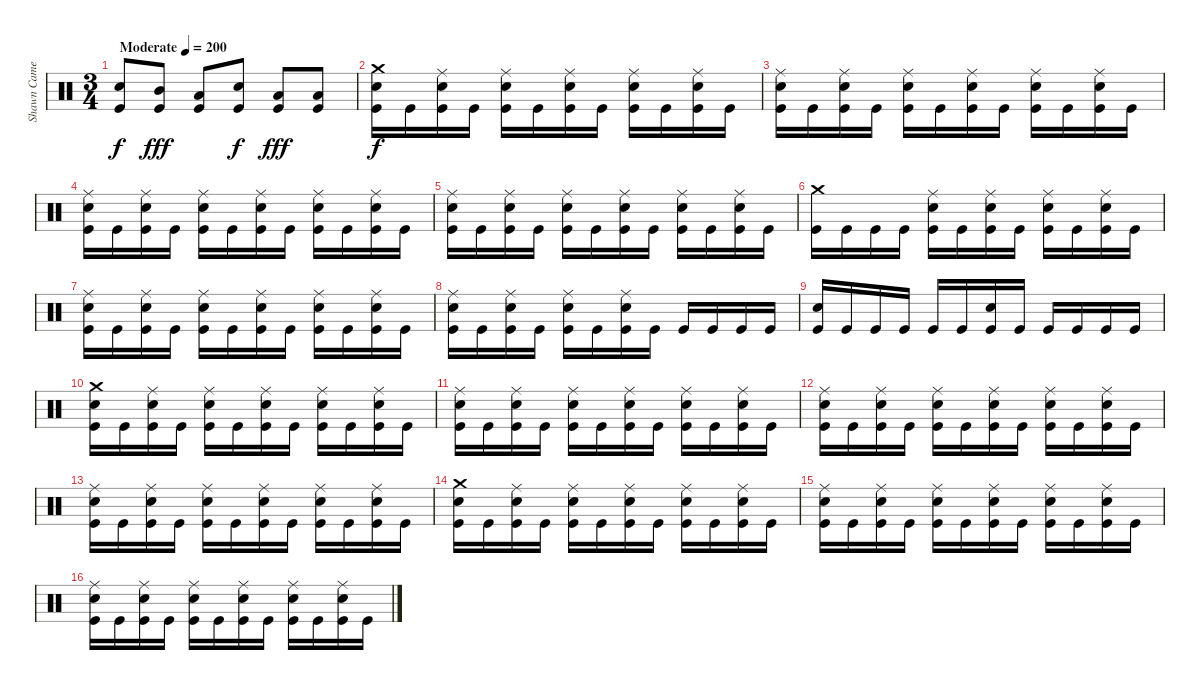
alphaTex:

\track ("Shawn Cameron" "Shawn Came") {instrument percussion}
\staff {score}
\articulation defaults
\ts (3 4)
\tempo (200 "Moderate")
\clef neutral
\ks c
("Snare (hit) 2" "Kick (hit)").8{dy f} ("Mid Tom (hit)" "Kick (hit)").8{dy fff} ("Low Tom (hit)" "Kick (hit)").8 ("Snare (hit) 2" "Kick (hit)").8{dy f} ("Low Tom (hit)" "Kick (hit)").8{dy fff} ("Low Floor Tom (hit)" "Kick (hit)").8 |
("Crash medium (hit)" "Snare (hit) 2" "Kick (hit)").16{dy f} "Kick (hit)".16 ("Ride (middle)" "Snare (hit) 2" "Kick (hit)").16 "Kick (hit)".16 ("Ride (middle)" "Snare (hit) 2" "Kick (hit)").16 "Kick (hit)".16 ("Ride (middle)" "Snare (hit) 2" "Kick (hit)").16 "Kick (hit)".16 ("Ride (middle)" "Snare (hit) 2" "Kick (hit)").16 "Kick (hit)".16 ("Ride (middle)" "Snare (hit) 2" "Kick (hit)").16 "Kick (hit)".16 |
("Ride (middle)" "Snare (hit) 2" "Kick (hit)").16 "Kick (hit)".16 ("Ride (middle)" "Snare (hit) 2" "Kick (hit)").16 "Kick (hit)".16 ("Ride (middle)" "Snare (hit) 2" "Kick (hit)").16 "Kick (hit)".16 ("Ride (middle)" "Snare (hit) 2" "Kick (hit)").16 "Kick (hit)".16 ("Ride (middle)" "Snare (hit) 2" "Kick (hit)").16 "Kick (hit)".16 ("Ride (middle)" "Snare (hit) 2" "Kick (hit)").16 "Kick (hit)".16 |
("Ride (middle)" "Snare (hit) 2" "Kick (hit)").16 "Kick (hit)".16 ("Ride (middle)" "Snare (hit) 2" "Kick (hit)").16 "Kick (hit)".16 ("Ride (middle)" "Snare (hit) 2" "Kick (hit)").16 "Kick (hit)".16 ("Ride (middle)" "Snare (hit) 2" "Kick (hit)").16 "Kick (hit)".16 ("Ride (middle)" "Snare (hit) 2" "Kick (hit)").16 "Kick (hit)".16 ("Ride (middle)" "Snare (hit) 2" "Kick (hit)").16 "Kick (hit)".16 |
("Ride (middle)" "Snare (hit) 2" "Kick (hit)").16 "Kick (hit)".16 ("Ride (middle)" "Snare (hit) 2" "Kick (hit)").16 "Kick (hit)".16 ("Ride (middle)" "Snare (hit) 2" "Kick (hit)").16 "Kick (hit)".16 ("Ride (middle)" "Snare (hit) 2" "Kick (hit)").16 "Kick (hit)".16 ("Ride (middle)" "Snare (hit) 2" "Kick (hit)").16 "Kick (hit)".16 ("Ride (middle)" "Snare (hit) 2" "Kick (hit)").16 "Kick (hit)".16 |
("Crash medium (hit)" "Kick (hit)").16 "Kick (hit)".16 "Kick (hit)".16 "Kick (hit)".16 ("Ride (middle)" "Snare (hit) 2" "Kick (hit)").16 "Kick (hit)".16 ("Ride (middle)" "Snare (hit) 2" "Kick (hit)").16 "Kick (hit)".16 ("Ride (middle)" "Snare (hit) 2" "Kick (hit)").16 "Kick (hit)".16 ("Ride (middle)" "Snare (hit) 2" "Kick (hit)").16 "Kick (hit)".16 |
("Ride (middle)" "Snare (hit) 2" "Kick (hit)").16 "Kick (hit)".16 ("Ride (middle)" "Snare (hit) 2" "Kick (hit)").16 "Kick (hit)".16 ("Ride (middle)" "Snare (hit) 2" "Kick (hit)").16 "Kick (hit)".16 ("Ride (middle)" "Snare (hit) 2" "Kick (hit)").16 "Kick (hit)".16 ("Ride (middle)" "Snare (hit) 2" "Kick (hit)").16 "Kick (hit)".16 ("Ride (middle)" "Snare (hit) 2" "Kick (hit)").16 "Kick (hit)".16 |
("Ride (middle)" "Snare (hit) 2" "Kick (hit)").16 "Kick (hit)".16 ("Ride (middle)" "Snare (hit) 2" "Kick (hit)").16 "Kick (hit)".16 ("Ride (middle)" "Snare (hit) 2" "Kick (hit)").16 "Kick (hit)".16 ("Ride (middle)" "Snare (hit) 2" "Kick (hit)").16 "Kick (hit)".16 "Kick (hit)".16 "Kick (hit)".16 "Kick (hit)".16 "Kick (hit)".16 |
("Snare (hit) 2" "Kick (hit)").16 "Kick (hit)".16 "Kick (hit)".16 "Kick (hit)".16 "Kick (hit)".16 "Kick (hit)".16 ("Snare (hit) 2" "Kick (hit)").16 "Kick (hit)".16 "Kick (hit)".16 "Kick (hit)".16 "Kick (hit)".16 "Kick (hit)".16 |
("Crash medium (hit)" "Snare (hit) 2" "Kick (hit)").16 "Kick (hit)".16 ("Ride (middle)" "Snare (hit) 2" "Kick (hit)").16 "Kick (hit)".16 ("Ride (middle)" "Snare (hit) 2" "Kick (hit)").16 "Kick (hit)".16 ("Ride (middle)" "Snare (hit) 2" "Kick (hit)").16 "Kick (hit)".16 ("Ride (middle)" "Snare (hit) 2" "Kick (hit)").16 "Kick (hit)".16 ("Ride (middle)" "Snare (hit) 2" "Kick (hit)").16 "Kick (hit)".16 |
("Ride (middle)" "Snare (hit) 2" "Kick (hit)").16 "Kick (hit)".16 ("Ride (middle)" "Snare (hit) 2" "Kick (hit)").16 "Kick (hit)".16 ("Ride (middle)" "Snare (hit) 2" "Kick (hit)").16 "Kick (hit)".16 ("Ride (middle)" "Snare (hit) 2" "Kick (hit)").16 "Kick (hit)".16 ("Ride (middle)" "Snare (hit) 2" "Kick (hit)").16 "Kick (hit)".16 ("Ride (middle)" "Snare (hit) 2" "Kick (hit)").16 "Kick (hit)".16 |
("Ride (middle)" "Snare (hit) 2" "Kick (hit)").16 "Kick (hit)".16 ("Ride (middle)" "Snare (hit) 2" "Kick (hit)").16 "Kick (hit)".16 ("Ride (middle)" "Snare (hit) 2" "Kick (hit)").16 "Kick (hit)".16 ("Ride (middle)" "Snare (hit) 2" "Kick (hit)").16 "Kick (hit)".16 ("Ride (middle)" "Snare (hit) 2" "Kick (hit)").16 "Kick (hit)".16 ("Ride (middle)" "Snare (hit) 2" "Kick (hit)").16 "Kick (hit)".16 |
("Ride (middle)" "Snare (hit) 2" "Kick (hit)").16 "Kick (hit)".16 ("Ride (middle)" "Snare (hit) 2" "Kick (hit)").16 "Kick (hit)".16 ("Ride (middle)" "Snare (hit) 2" "Kick (hit)").16 "Kick (hit)".16 ("Ride (middle)" "Snare (hit) 2" "Kick (hit)").16 "Kick (hit)".16 ("Ride (middle)" "Snare (hit) 2" "Kick (hit)").16 "Kick (hit)".16 ("Ride (middle)" "Snare (hit) 2" "Kick (hit)").16 "Kick (hit)".16 |
("Crash medium (hit)" "Snare (hit) 2" "Kick (hit)").16 "Kick (hit)".16 ("Ride (middle)" "Snare (hit) 2" "Kick (hit)").16 "Kick (hit)".16 ("Ride (middle)" "Snare (hit) 2" "Kick (hit)").16 "Kick (hit)".16 ("Ride (middle)" "Snare (hit) 2" "Kick (hit)").16 "Kick (hit)".16 ("Ride (middle)" "Snare (hit) 2" "Kick (hit)").16 "Kick (hit)".16 ("Ride (middle)" "Snare (hit) 2" "Kick (hit)").16 "Kick (hit)".16 |
("Ride (middle)" "Snare (hit) 2" "Kick (hit)").16 "Kick (hit)".16 ("Ride (middle)" "Snare (hit) 2" "Kick (hit)").16 "Kick (hit)".16 ("Ride (middle)" "Snare (hit) 2" "Kick (hit)").16 "Kick (hit)".16 ("Ride (middle)" "Snare (hit) 2" "Kick (hit)").16 "Kick (hit)".16 ("Ride (middle)" "Snare (hit) 2" "Kick (hit)").16 "Kick (hit)".16 ("Ride (middle)" "Snare (hit) 2" "Kick (hit)").16 "Kick (hit)".16 |
("Ride (middle)" "Snare (hit) 2" "Kick (hit)").16 "Kick (hit)".16 ("Ride (middle)" "Snare (hit) 2" "Kick (hit)").16 "Kick (hit)".16 ("Ride (middle)" "Snare (hit) 2" "Kick (hit)").16 "Kick (hit)".16 ("Ride (middle)" "Snare (hit) 2" "Kick (hit)").16 "Kick (hit)".16 ("Ride (middle)" "Snare (hit) 2" "Kick (hit)").16 "Kick (hit)".16 ("Ride (middle)" "Snare (hit) 2" "Kick (hit)").16 "Kick (hit)".16
